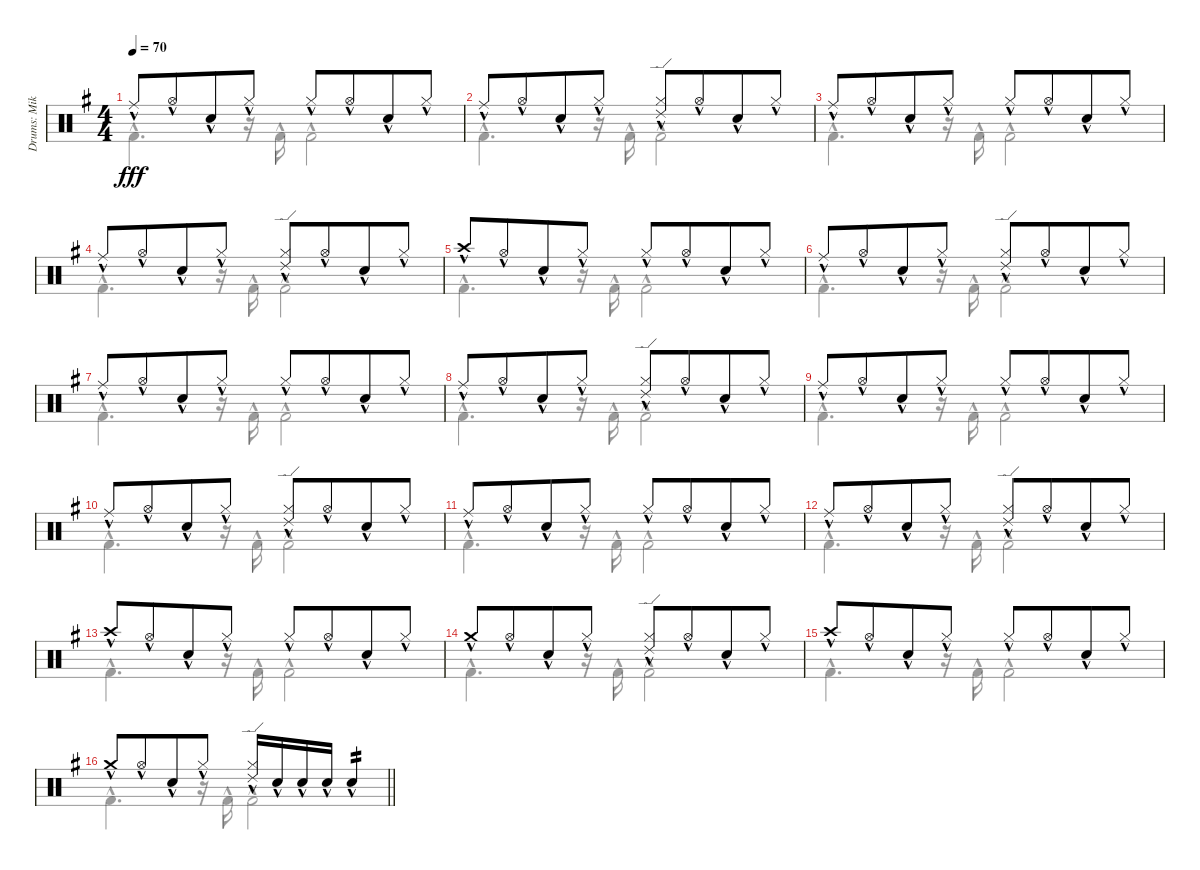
\track ("Drums: Mike" "Drums: Mik") {instrument percussion}
\staff {score}
\articulation defaults
\voice
\ts (4 4)
\tempo 70
\clef neutral
\ks g "Ride (middle)"{hac}.8{dy fff} "Hi-Hat (open)"{hac}.8{beam merge} "Snare (hit) 2"{hac}.8 "Hi-Hat (closed)"{hac}.8 "Hi-Hat (closed)"{hac}.8 "Hi-Hat (open)"{hac}.8{beam merge} "Snare (hit) 2"{hac}.8 "Hi-Hat (closed)"{hac}.8
|
"Ride (middle)"{hac}.8 "Hi-Hat (open)"{hac}.8{beam merge} "Snare (hit) 2"{hac}.8 "Hi-Hat (closed)"{hac}.8 ("Ride (edge) 2"{hac} "Hi-Hat (closed)"{hac}).8 "Hi-Hat (open)"{hac}.8{beam merge} "Snare (hit) 2"{hac}.8 "Hi-Hat (closed)"{hac}.8 |
"Ride (middle)"{hac}.8 "Hi-Hat (open)"{hac}.8{beam merge} "Snare (hit) 2"{hac}.8 "Hi-Hat (closed)"{hac}.8 "Hi-Hat (closed)"{hac}.8 "Hi-Hat (open)"{hac}.8{beam merge} "Snare (hit) 2"{hac}.8 "Hi-Hat (closed)"{hac}.8 |
"Ride (middle)"{hac}.8 "Hi-Hat (open)"{hac}.8{beam merge} "Snare (hit) 2"{hac}.8 "Hi-Hat (closed)"{hac}.8 ("Ride (edge) 2"{hac} "Hi-Hat (closed)"{hac}).8 "Hi-Hat (open)"{hac}.8{beam merge} "Snare (hit) 2"{hac}.8 "Hi-Hat (closed)"{hac}.8 |
"Crash high (hit)"{hac}.8 "Hi-Hat (open)"{hac}.8{beam merge} "Snare (hit) 2"{hac}.8 "Hi-Hat (closed)"{hac}.8 "Hi-Hat (closed)"{hac}.8 "Hi-Hat (open)"{hac}.8{beam merge} "Snare (hit) 2"{hac}.8 "Hi-Hat (closed)"{hac}.8 |
"Ride (middle)"{hac}.8 "Hi-Hat (open)"{hac}.8{beam merge} "Snare (hit) 2"{hac}.8 "Hi-Hat (closed)"{hac}.8 ("Ride (edge) 2"{hac} "Hi-Hat (closed)"{hac}).8 "Hi-Hat (open)"{hac}.8{beam merge} "Snare (hit) 2"{hac}.8 "Hi-Hat (closed)"{hac}.8 |
"Ride (middle)"{hac}.8 "Hi-Hat (open)"{hac}.8{beam merge} "Snare (hit) 2"{hac}.8 "Hi-Hat (closed)"{hac}.8 "Hi-Hat (closed)"{hac}.8 "Hi-Hat (open)"{hac}.8{beam merge} "Snare (hit) 2"{hac}.8 "Hi-Hat (closed)"{hac}.8 |
"Ride (middle)"{hac}.8 "Hi-Hat (open)"{hac}.8{beam merge} "Snare (hit) 2"{hac}.8 "Hi-Hat (closed)"{hac}.8 ("Ride (edge) 2"{hac} "Hi-Hat (closed)"{hac}).8 "Hi-Hat (open)"{hac}.8{beam merge} "Snare (hit) 2"{hac}.8 "Hi-Hat (closed)"{hac}.8 |
"Ride (middle)"{hac}.8 "Hi-Hat (open)"{hac}.8{beam merge} "Snare (hit) 2"{hac}.8 "Hi-Hat (closed)"{hac}.8 "Hi-Hat (closed)"{hac}.8 "Hi-Hat (open)"{hac}.8{beam merge} "Snare (hit) 2"{hac}.8 "Hi-Hat (closed)"{hac}.8 |
"Ride (middle)"{hac}.8 "Hi-Hat (open)"{hac}.8{beam merge} "Snare (hit) 2"{hac}.8 "Hi-Hat (closed)"{hac}.8 ("Ride (edge) 2"{hac} "Hi-Hat (closed)"{hac}).8 "Hi-Hat (open)"{hac}.8{beam merge} "Snare (hit) 2"{hac}.8 "Hi-Hat (closed)"{hac}.8 |
"Ride (middle)"{hac}.8 "Hi-Hat (open)"{hac}.8{beam merge} "Snare (hit) 2"{hac}.8 "Hi-Hat (closed)"{hac}.8 "Hi-Hat (closed)"{hac}.8 "Hi-Hat (open)"{hac}.8{beam merge} "Snare (hit) 2"{hac}.8 "Hi-Hat (closed)"{hac}.8 |
"Ride (middle)"{hac}.8 "Hi-Hat (open)"{hac}.8{beam merge} "Snare (hit) 2"{hac}.8 "Hi-Hat (closed)"{hac}.8 ("Ride (edge) 2"{hac} "Hi-Hat (closed)"{hac}).8 "Hi-Hat (open)"{hac}.8{beam merge} "Snare (hit) 2"{hac}.8 "Hi-Hat (closed)"{hac}.8 |
"Crash high (hit)"{hac}.8 "Hi-Hat (open)"{hac}.8{beam merge} "Snare (hit) 2"{hac}.8 "Hi-Hat (closed)"{hac}.8 "Hi-Hat (closed)"{hac}.8 "Hi-Hat (open)"{hac}.8{beam merge} "Snare (hit) 2"{hac}.8 "Hi-Hat (closed)"{hac}.8 |
"Crash medium (hit)"{hac}.8 "Hi-Hat (open)"{hac}.8{beam merge} "Snare (hit) 2"{hac}.8 "Hi-Hat (closed)"{hac}.8 ("Ride (edge) 2"{hac} "Hi-Hat (closed)"{hac}).8 "Hi-Hat (open)"{hac}.8{beam merge} "Snare (hit) 2"{hac}.8 "Hi-Hat (closed)"{hac}.8 |
"Crash high (hit)"{hac}.8 "Hi-Hat (open)"{hac}.8{beam merge} "Snare (hit) 2"{hac}.8 "Hi-Hat (closed)"{hac}.8 "Hi-Hat (closed)"{hac}.8 "Hi-Hat (open)"{hac}.8{beam merge} "Snare (hit) 2"{hac}.8 "Hi-Hat (closed)"{hac}.8 |
\barLineRight lightlight "Crash medium (hit)"{hac}.8 "Hi-Hat (open)"{hac}.8{beam merge} "Snare (hit) 2"{hac}.8 "Hi-Hat (closed)"{hac}.8
("Ride (edge) 2"{hac} "Hi-Hat (closed)"{hac}).16 "Snare (hit) 2"{hac}.16{beam merge} "Snare (hit) 2"{hac}.16 "Snare (hit) 2"{hac}.16 "Snare (hit) 2"{hac}.4{tp 2}
\voice
\clef neutral
\ottava regular
\simile none
\ks g "Kick (hit) 2"{hac}.4{d dy fff}
r.16 "Kick (hit) 2"{hac}.16 "Kick (hit) 2"{hac}.2 |
"Kick (hit) 2"{hac}.4{d} r.16 "Kick (hit) 2"{hac}.16 "Kick (hit) 2"{hac}.2 |
"Kick (hit) 2"{hac}.4{d} r.16 "Kick (hit) 2"{hac}.16 "Kick (hit) 2"{hac}.2 |
"Kick (hit) 2"{hac}.4{d} r.16 "Kick (hit) 2"{hac}.16 "Kick (hit) 2"{hac}.2 |
"Kick (hit) 2"{hac}.4{d} r.16 "Kick (hit) 2"{hac}.16 "Kick (hit) 2"{hac}.2 |
"Kick (hit) 2"{hac}.4{d} r.16 "Kick (hit) 2"{hac}.16 "Kick (hit) 2"{hac}.2 |
"Kick (hit) 2"{hac}.4{d} r.16 "Kick (hit) 2"{hac}.16 "Kick (hit) 2"{hac}.2 |
"Kick (hit) 2"{hac}.4{d} r.16 "Kick (hit) 2"{hac}.16 "Kick (hit) 2"{hac}.2 |
"Kick (hit) 2"{hac}.4{d} r.16 "Kick (hit) 2"{hac}.16 "Kick (hit) 2"{hac}.2 |
"Kick (hit) 2"{hac}.4{d} r.16 "Kick (hit) 2"{hac}.16 "Kick (hit) 2"{hac}.2 |
"Kick (hit) 2"{hac}.4{d} r.16 "Kick (hit) 2"{hac}.16 "Kick (hit) 2"{hac}.2 |
"Kick (hit) 2"{hac}.4{d} r.16 "Kick (hit) 2"{hac}.16 "Kick (hit) 2"{hac}.2 |
"Kick (hit) 2"{hac}.4{d} r.16 "Kick (hit) 2"{hac}.16 "Kick (hit) 2"{hac}.2 |
"Kick (hit) 2"{hac}.4{d} r.16 "Kick (hit) 2"{hac}.16 "Kick (hit) 2"{hac}.2 |
"Kick (hit) 2"{hac}.4{d} r.16 "Kick (hit) 2"{hac}.16 "Kick (hit) 2"{hac}.2 |
\barLineRight lightlight "Kick (hit) 2"{hac}.4{d}
r.16 "Kick (hit) 2"{hac}.16 "Kick (hit) 2"{hac}.2
